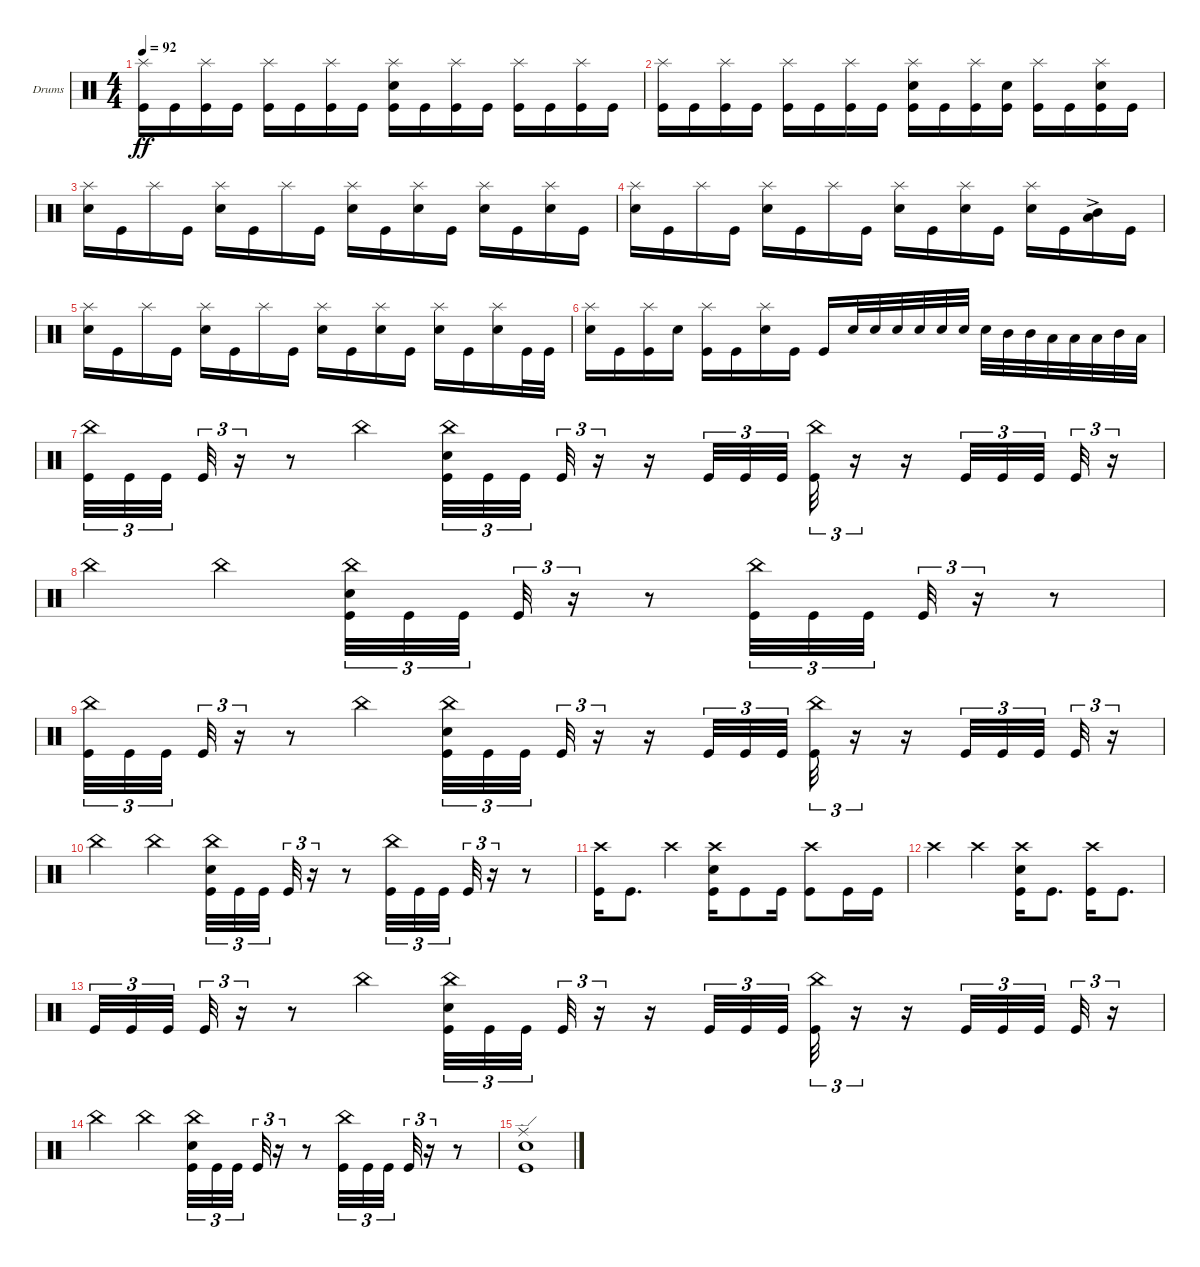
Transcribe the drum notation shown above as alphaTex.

\defaultSystemsLayout 4
\bracketExtendMode groupsimilarinstruments
\firstSystemTrackNameOrientation horizontal
\otherSystemsTrackNameOrientation horizontal
\track ("Drumkit" "Drums") {instrument percussion}
\staff {score}
\articulation defaults
\ts (4 4)
\tempo 92
\clef neutral
\ks c
("Kick (hit)" "Splash (hit)").16{dy ff} "Kick (hit)".16 ("Kick (hit)" "Splash (hit)").16 "Kick (hit)".16 ("Kick (hit)" "Splash (hit)").16 "Kick (hit)".16 ("Kick (hit)" "Splash (hit)").16 "Kick (hit)".16 ("Kick (hit)" "Snare (hit) 2" "Splash (hit)").16 "Kick (hit)".16 ("Kick (hit)" "Splash (hit)").16 "Kick (hit)".16 ("Kick (hit)" "Splash (hit)").16 "Kick (hit)".16 ("Kick (hit)" "Splash (hit)").16 "Kick (hit)".16 |
("Kick (hit)" "Splash (hit)").16 "Kick (hit)".16 ("Kick (hit)" "Splash (hit)").16 "Kick (hit)".16 ("Kick (hit)" "Splash (hit)").16 "Kick (hit)".16 ("Kick (hit)" "Splash (hit)").16 "Kick (hit)".16 ("Snare (hit) 2" "Splash (hit)" "Kick (hit)").16 "Kick (hit)".16 ("Splash (hit)" "Kick (hit)").16 ("Kick (hit)" "Snare (hit) 2").16 ("Kick (hit)" "Splash (hit)").16 "Kick (hit)".16 ("Snare (hit) 2" "Kick (hit)" "Splash (hit)").16 "Kick (hit)".16 |
("Snare (hit) 2" "Splash (hit)").16 "Kick (hit)".16 "Splash (hit)".16 "Kick (hit)".16 ("Snare (hit) 2" "Splash (hit)").16 "Kick (hit)".16 "Splash (hit)".16 "Kick (hit)".16 ("Snare (hit) 2" "Splash (hit)").16 "Kick (hit)".16 ("Snare (hit) 2" "Splash (hit)").16 "Kick (hit)".16 ("Snare (hit) 2" "Splash (hit)").16 "Kick (hit)".16 ("Snare (hit) 2" "Splash (hit)").16 "Kick (hit)".16 |
("Snare (hit) 2" "Splash (hit)").16 "Kick (hit)".16 "Splash (hit)".16 "Kick (hit)".16 ("Snare (hit) 2" "Splash (hit)").16 "Kick (hit)".16 "Splash (hit)".16 "Kick (hit)".16 ("Snare (hit) 2" "Splash (hit)").16 "Kick (hit)".16 ("Snare (hit) 2" "Splash (hit)").16 "Kick (hit)".16 ("Snare (hit) 2" "Splash (hit)").16 "Kick (hit)".16 ("Low Tom (hit)"{ac} "Mid Tom (hit)"{ac}).16 "Kick (hit)".16 |
("Snare (hit) 2" "Splash (hit)").16 "Kick (hit)".16 "Splash (hit)".16 "Kick (hit)".16 ("Snare (hit) 2" "Splash (hit)").16 "Kick (hit)".16 "Splash (hit)".16 "Kick (hit)".16 ("Snare (hit) 2" "Splash (hit)").16 "Kick (hit)".16 ("Snare (hit) 2" "Splash (hit)").16 "Kick (hit)".16 ("Snare (hit) 2" "Splash (hit)").16 "Kick (hit)".16 ("Snare (hit) 2" "Splash (hit)").16 "Kick (hit)".32 "Kick (hit)".32 |
("Snare (hit) 2" "Splash (hit)").16 "Kick (hit)".16 ("Kick (hit)" "Splash (hit)").16 "Snare (hit) 2".16 ("Kick (hit)" "Splash (hit)").16 "Kick (hit)".16 ("Snare (hit) 2" "Splash (hit)").16 "Kick (hit)".16 "Kick (hit)".16 "Snare (hit) 2".32 "Snare (hit) 2".32 "Snare (hit) 2".32 "Snare (hit) 2".32 "Snare (hit) 2".32 "Snare (hit) 2".32 "Snare (hit) 2".32 "Mid Tom (hit)".32 "Mid Tom (hit)".32 "Low Tom (hit)".32 "Low Tom (hit)".32 "Low Tom (hit)".32 "Mid Tom (hit)".32 "Low Tom (hit)".32 |
("Kick (hit)" "China (hit)").32{tu (3 2)} "Kick (hit)".32{tu (3 2)} "Kick (hit)".32{tu (3 2)} "Kick (hit)".32{tu (3 2)} r.16{tu (3 2)} r.8 "China (hit)".4 ("Kick (hit)" "China (hit)" "Snare (hit) 2").32{tu (3 2)} "Kick (hit)".32{tu (3 2)} "Kick (hit)".32{tu (3 2)} "Kick (hit)".32{tu (3 2)} r.16{tu (3 2)} r.16 "Kick (hit)".32{tu (3 2)} "Kick (hit)".32{tu (3 2)} "Kick (hit)".32{tu (3 2)} ("China (hit)" "Kick (hit)").32{tu (3 2)} r.16{tu (3 2)} r.16 "Kick (hit)".32{tu (3 2)} "Kick (hit)".32{tu (3 2)} "Kick (hit)".32{tu (3 2)} "Kick (hit)".32{tu (3 2)} r.16{tu (3 2)} |
"China (hit)".4 "China (hit)".4 ("China (hit)" "Snare (hit) 2" "Kick (hit)").32{tu (3 2)} "Kick (hit)".32{tu (3 2)} "Kick (hit)".32{tu (3 2)} "Kick (hit)".32{tu (3 2)} r.16{tu (3 2)} r.8 ("China (hit)" "Kick (hit)").32{tu (3 2)} "Kick (hit)".32{tu (3 2)} "Kick (hit)".32{tu (3 2)} "Kick (hit)".32{tu (3 2)} r.16{tu (3 2)} r.8 |
("Kick (hit)" "China (hit)").32{tu (3 2)} "Kick (hit)".32{tu (3 2)} "Kick (hit)".32{tu (3 2)} "Kick (hit)".32{tu (3 2)} r.16{tu (3 2)} r.8 "China (hit)".4 ("Kick (hit)" "China (hit)" "Snare (hit) 2").32{tu (3 2)} "Kick (hit)".32{tu (3 2)} "Kick (hit)".32{tu (3 2)} "Kick (hit)".32{tu (3 2)} r.16{tu (3 2)} r.16 "Kick (hit)".32{tu (3 2)} "Kick (hit)".32{tu (3 2)} "Kick (hit)".32{tu (3 2)} ("China (hit)" "Kick (hit)").32{tu (3 2)} r.16{tu (3 2)} r.16 "Kick (hit)".32{tu (3 2)} "Kick (hit)".32{tu (3 2)} "Kick (hit)".32{tu (3 2)} "Kick (hit)".32{tu (3 2)} r.16{tu (3 2)} |
"China (hit)".4 "China (hit)".4 ("China (hit)" "Snare (hit) 2" "Kick (hit)").32{tu (3 2)} "Kick (hit)".32{tu (3 2)} "Kick (hit)".32{tu (3 2)} "Kick (hit)".32{tu (3 2)} r.16{tu (3 2)} r.8 ("China (hit)" "Kick (hit)").32{tu (3 2)} "Kick (hit)".32{tu (3 2)} "Kick (hit)".32{tu (3 2)} "Kick (hit)".32{tu (3 2)} r.16{tu (3 2)} r.8 |
("Kick (hit)" "Crash high (hit)").16 "Kick (hit)".8{d} "Crash high (hit)".4 ("Kick (hit)" "Snare (hit) 2" "Crash high (hit)").16 "Kick (hit)".8 "Kick (hit)".16 ("Kick (hit)" "Crash high (hit)").8 "Kick (hit)".16 "Kick (hit)".16 |
"Crash high (hit)".4 "Crash high (hit)".4 ("Kick (hit)" "Snare (hit) 2" "Crash high (hit)").16 "Kick (hit)".8{d} ("Kick (hit)" "Crash high (hit)").16 "Kick (hit)".8{d} |
"Kick (hit)".32{tu (3 2)} "Kick (hit)".32{tu (3 2)} "Kick (hit)".32{tu (3 2)} "Kick (hit)".32{tu (3 2)} r.16{tu (3 2)} r.8 "China (hit)".4 ("Kick (hit)" "China (hit)" "Snare (hit) 2").32{tu (3 2)} "Kick (hit)".32{tu (3 2)} "Kick (hit)".32{tu (3 2)} "Kick (hit)".32{tu (3 2)} r.16{tu (3 2)} r.16 "Kick (hit)".32{tu (3 2)} "Kick (hit)".32{tu (3 2)} "Kick (hit)".32{tu (3 2)} ("China (hit)" "Kick (hit)").32{tu (3 2)} r.16{tu (3 2)} r.16 "Kick (hit)".32{tu (3 2)} "Kick (hit)".32{tu (3 2)} "Kick (hit)".32{tu (3 2)} "Kick (hit)".32{tu (3 2)} r.16{tu (3 2)} |
"China (hit)".4 "China (hit)".4 ("China (hit)" "Snare (hit) 2" "Kick (hit)").32{tu (3 2)} "Kick (hit)".32{tu (3 2)} "Kick (hit)".32{tu (3 2)} "Kick (hit)".32{tu (3 2)} r.16{tu (3 2)} r.8 ("China (hit)" "Kick (hit)").32{tu (3 2)} "Kick (hit)".32{tu (3 2)} "Kick (hit)".32{tu (3 2)} "Kick (hit)".32{tu (3 2)} r.16{tu (3 2)} r.8 |
("Kick (hit)" "Snare (hit) 2" "Ride (edge)").1
